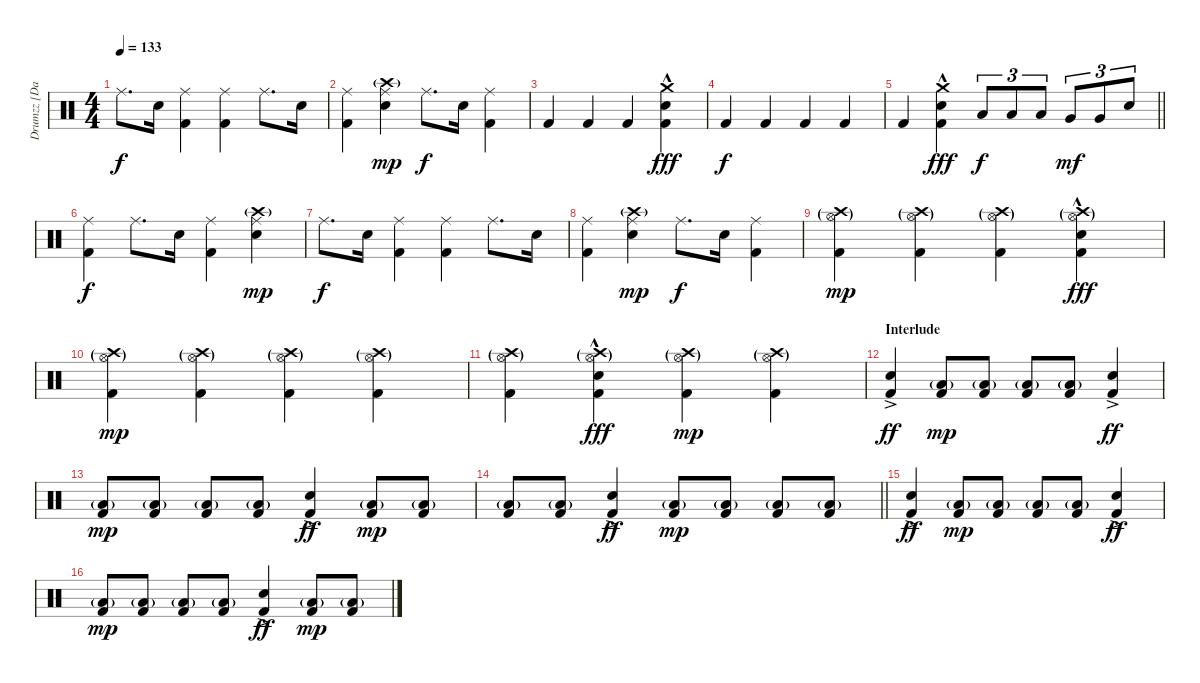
\track ("Drumzz [Dave Grohl]" "Drumzz [Da") {instrument percussion}
\staff {score}
\articulation defaults
\ts (4 4)
\tempo 133
\clef neutral
\ks c "Ride (middle)".8{d dy f} "Snare (hit) 2".16
("Ride (middle)" "Kick (hit) 2").4 ("Ride (middle)" "Kick (hit) 2").4 "Ride (middle)".8{d} "Snare (hit) 2".16 |
("Ride (middle)" "Kick (hit) 2").4 ("Ride (middle)" "Snare (hit) 2" "Crash high (hit)"{g}).4{dy mp} "Ride (middle)".8{d dy f} "Snare (hit) 2".16 ("Ride (middle)" "Kick (hit) 2").4 |
"Kick (hit) 2".4 "Kick (hit) 2".4 "Kick (hit) 2".4 ("Crash medium (hit)" "Snare (hit) 2"{hac} "Kick (hit) 2").4{dy fff} |
"Kick (hit) 2".4{dy f} "Kick (hit) 2".4 "Kick (hit) 2".4 "Kick (hit) 2".4 |
\barLineRight lightlight "Kick (hit) 2".4
("Crash medium (hit)" "Snare (hit) 2"{hac} "Kick (hit) 2").4{dy fff} "Low Tom (hit)".8{tu (3 2) dy f} "Low Tom (hit)".8{tu (3 2)} "Low Tom (hit)".8{tu (3 2)} "Very Low Tom (hit)".8{tu (3 2) dy mf} "Very Low Tom (hit)".8{tu (3 2)} "Snare (hit) 2".8{tu (3 2)} |
("Ride (middle)" "Kick (hit) 2").4{dy f} "Ride (middle)".8{d} "Snare (hit) 2".16 ("Ride (middle)" "Kick (hit) 2").4 ("Ride (middle)" "Snare (hit) 2" "Crash high (hit)"{g}).4{dy mp} |
"Ride (middle)".8{d dy f} "Snare (hit) 2".16 ("Ride (middle)" "Kick (hit) 2").4 ("Ride (middle)" "Kick (hit) 2").4 "Ride (middle)".8{d} "Snare (hit) 2".16 |
("Ride (middle)" "Kick (hit) 2").4 ("Ride (middle)" "Snare (hit) 2" "Crash high (hit)"{g}).4{dy mp} "Ride (middle)".8{d dy f} "Snare (hit) 2".16 ("Ride (middle)" "Kick (hit) 2").4 |
("Crash high (hit)"{g} "Hi-Hat (open)"{g} "Kick (hit) 2").4{dy mp} ("Crash high (hit)"{g} "Hi-Hat (open)"{g} "Kick (hit) 2").4 ("Crash high (hit)"{g} "Hi-Hat (open)"{g} "Kick (hit) 2").4 ("Crash high (hit)"{g} "Hi-Hat (open)"{g} "Snare (hit) 2"{hac} "Kick (hit) 2").4{dy fff} |
("Crash high (hit)"{g} "Hi-Hat (open)"{g} "Kick (hit) 2").4{dy mp} ("Crash high (hit)"{g} "Hi-Hat (open)"{g} "Kick (hit) 2").4 ("Crash high (hit)"{g} "Hi-Hat (open)"{g} "Kick (hit) 2").4 ("Crash high (hit)"{g} "Hi-Hat (open)"{g} "Kick (hit) 2").4 |
("Crash high (hit)"{g} "Hi-Hat (open)"{g} "Kick (hit) 2").4 ("Crash high (hit)"{g} "Hi-Hat (open)"{g} "Snare (hit) 2"{hac} "Kick (hit) 2").4{dy fff} ("Crash high (hit)"{g} "Hi-Hat (open)"{g} "Kick (hit) 2").4{dy mp} ("Crash high (hit)"{g} "Hi-Hat (open)"{g} "Kick (hit) 2").4 |
\section ("" "Interlude")
("Snare (hit) 2"{ac} "Kick (hit) 2").4{dy ff} ("Low Floor Tom (hit)"{g} "Kick (hit) 2").8{dy mp} ("Low Floor Tom (hit)"{g} "Kick (hit) 2").8 ("Low Floor Tom (hit)"{g} "Kick (hit) 2").8 ("Low Floor Tom (hit)"{g} "Kick (hit) 2").8 ("Snare (hit) 2"{ac} "Kick (hit) 2").4{dy ff} |
("Low Floor Tom (hit)"{g} "Kick (hit) 2").8{dy mp} ("Low Floor Tom (hit)"{g} "Kick (hit) 2").8 ("Low Floor Tom (hit)"{g} "Kick (hit) 2").8 ("Low Floor Tom (hit)"{g} "Kick (hit) 2").8 ("Snare (hit) 2"{ac} "Kick (hit) 2").4{dy ff} ("Low Floor Tom (hit)"{g} "Kick (hit) 2").8{dy mp} ("Low Floor Tom (hit)"{g} "Kick (hit) 2").8 |
\barLineRight lightlight
("Low Floor Tom (hit)"{g} "Kick (hit) 2").8 ("Low Floor Tom (hit)"{g} "Kick (hit) 2").8 ("Snare (hit) 2"{ac} "Kick (hit) 2").4{dy ff} ("Low Floor Tom (hit)"{g} "Kick (hit) 2").8{dy mp} ("Low Floor Tom (hit)"{g} "Kick (hit) 2").8 ("Low Floor Tom (hit)"{g} "Kick (hit) 2").8 ("Low Floor Tom (hit)"{g} "Kick (hit) 2").8 |
("Snare (hit) 2"{ac} "Kick (hit) 2").4{dy ff} ("Low Floor Tom (hit)"{g} "Kick (hit) 2").8{dy mp} ("Low Floor Tom (hit)"{g} "Kick (hit) 2").8 ("Low Floor Tom (hit)"{g} "Kick (hit) 2").8 ("Low Floor Tom (hit)"{g} "Kick (hit) 2").8 ("Snare (hit) 2"{ac} "Kick (hit) 2").4{dy ff} |
("Low Floor Tom (hit)"{g} "Kick (hit) 2").8{dy mp} ("Low Floor Tom (hit)"{g} "Kick (hit) 2").8 ("Low Floor Tom (hit)"{g} "Kick (hit) 2").8 ("Low Floor Tom (hit)"{g} "Kick (hit) 2").8 ("Snare (hit) 2"{ac} "Kick (hit) 2").4{dy ff} ("Low Floor Tom (hit)"{g} "Kick (hit) 2").8{dy mp} ("Low Floor Tom (hit)"{g} "Kick (hit) 2").8
